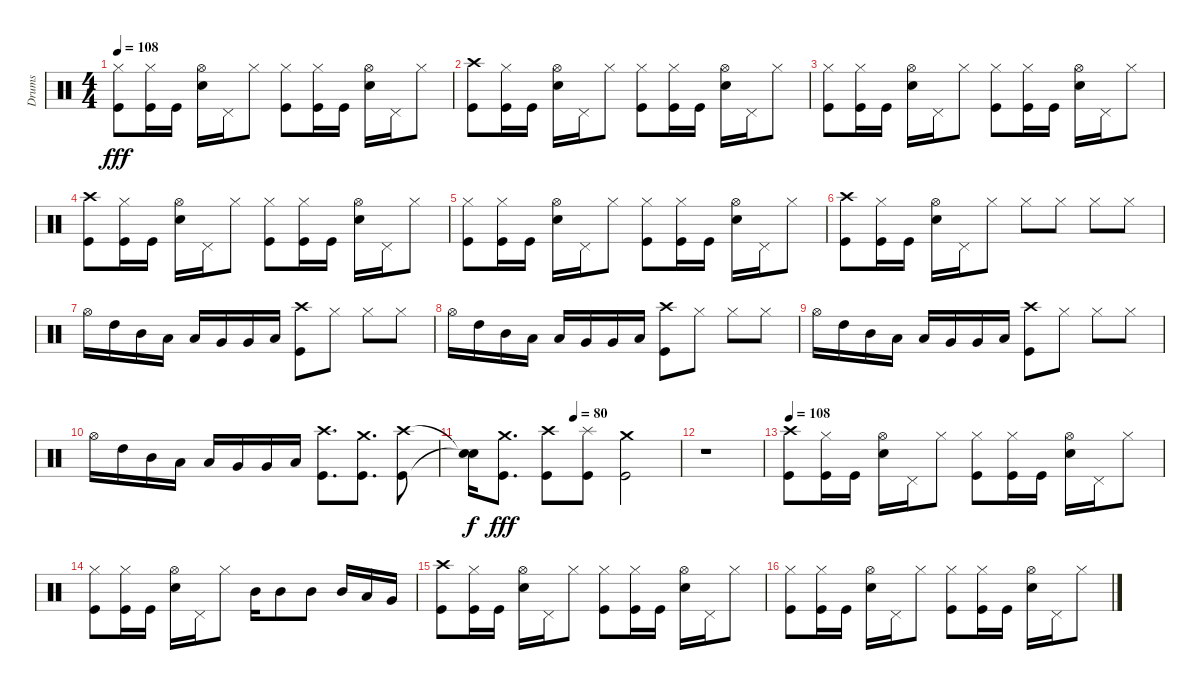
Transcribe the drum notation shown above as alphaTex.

\track ("Drums" "Drums") {instrument percussion}
\staff {score}
\articulation defaults
\ts (4 4)
\tempo 108
\clef neutral
\ks c
("Hi-Hat (closed)" "Kick (hit)").8{dy fff} ("Hi-Hat (closed)" "Kick (hit)").16 "Kick (hit)".16 ("Hi-Hat (open)" "Snare (hit) 2").16 "Pedal Hi-Hat (hit)".16 "Hi-Hat (closed)".8 ("Hi-Hat (closed)" "Kick (hit)").8 ("Hi-Hat (closed)" "Kick (hit)").16 "Kick (hit)".16 ("Hi-Hat (open)" "Snare (hit) 2").16 "Pedal Hi-Hat (hit)".16 "Hi-Hat (closed)".8 |
("Crash high (hit)" "Kick (hit)").8 ("Hi-Hat (closed)" "Kick (hit)").16 "Kick (hit)".16 ("Hi-Hat (open)" "Snare (hit) 2").16 "Pedal Hi-Hat (hit)".16 "Hi-Hat (closed)".8 ("Hi-Hat (closed)" "Kick (hit)").8 ("Hi-Hat (closed)" "Kick (hit)").16 "Kick (hit)".16 ("Hi-Hat (open)" "Snare (hit) 2").16 "Pedal Hi-Hat (hit)".16 "Hi-Hat (closed)".8 |
("Hi-Hat (closed)" "Kick (hit)").8 ("Hi-Hat (closed)" "Kick (hit)").16 "Kick (hit)".16 ("Hi-Hat (open)" "Snare (hit) 2").16 "Pedal Hi-Hat (hit)".16 "Hi-Hat (closed)".8 ("Hi-Hat (closed)" "Kick (hit)").8 ("Hi-Hat (closed)" "Kick (hit)").16 "Kick (hit)".16 ("Hi-Hat (open)" "Snare (hit) 2").16 "Pedal Hi-Hat (hit)".16 "Hi-Hat (closed)".8 |
("Crash high (hit)" "Kick (hit)").8 ("Hi-Hat (closed)" "Kick (hit)").16 "Kick (hit)".16 ("Hi-Hat (open)" "Snare (hit) 2").16 "Pedal Hi-Hat (hit)".16 "Hi-Hat (closed)".8 ("Hi-Hat (closed)" "Kick (hit)").8 ("Hi-Hat (closed)" "Kick (hit)").16 "Kick (hit)".16 ("Hi-Hat (open)" "Snare (hit) 2").16 "Pedal Hi-Hat (hit)".16 "Hi-Hat (closed)".8 |
("Hi-Hat (closed)" "Kick (hit)").8 ("Hi-Hat (closed)" "Kick (hit)").16 "Kick (hit)".16 ("Hi-Hat (open)" "Snare (hit) 2").16 "Pedal Hi-Hat (hit)".16 "Hi-Hat (closed)".8 ("Hi-Hat (closed)" "Kick (hit)").8 ("Hi-Hat (closed)" "Kick (hit)").16 "Kick (hit)".16 ("Hi-Hat (open)" "Snare (hit) 2").16 "Pedal Hi-Hat (hit)".16 "Hi-Hat (closed)".8 |
("Crash high (hit)" "Kick (hit)").8 ("Hi-Hat (closed)" "Kick (hit)").16 "Kick (hit)".16 ("Hi-Hat (open)" "Snare (hit) 2").16 "Pedal Hi-Hat (hit)".16 "Hi-Hat (closed)".8 "Hi-Hat (closed)".8 "Hi-Hat (closed)".8 "Hi-Hat (closed)".8 "Hi-Hat (closed)".8 |
"Hi-Hat (open)".16 "High Tom (hit)".16 "Mid Tom (hit)".16 "Low Tom (hit)".16 "Low Tom (hit)".16 "Very Low Tom (hit)".16 "Very Low Tom (hit)".16 "Low Floor Tom (hit)".16 ("Crash high (hit)" "Kick (hit)").8 "Hi-Hat (closed)".8 "Hi-Hat (closed)".8 "Hi-Hat (closed)".8 |
"Hi-Hat (open)".16 "High Tom (hit)".16 "Mid Tom (hit)".16 "Low Tom (hit)".16 "Low Tom (hit)".16 "Very Low Tom (hit)".16 "Very Low Tom (hit)".16 "Low Floor Tom (hit)".16 ("Crash high (hit)" "Kick (hit)").8 "Hi-Hat (closed)".8 "Hi-Hat (closed)".8 "Hi-Hat (closed)".8 |
"Hi-Hat (open)".16 "High Tom (hit)".16 "Mid Tom (hit)".16 "Low Tom (hit)".16 "Low Tom (hit)".16 "Very Low Tom (hit)".16 "Very Low Tom (hit)".16 "Low Floor Tom (hit)".16 ("Crash high (hit)" "Kick (hit)").8 "Hi-Hat (closed)".8 "Hi-Hat (closed)".8 "Hi-Hat (closed)".8 |
"Hi-Hat (open)".16 "High Tom (hit)".16 "Mid Tom (hit)".16 "Low Tom (hit)".16 "Low Tom (hit)".16 "Very Low Tom (hit)".16 "Very Low Tom (hit)".16 "Low Floor Tom (hit)".16 ("Crash high (hit)" "Kick (hit)").8{d} ("Crash medium (hit)" "Kick (hit)").8{d} ("Crash high (hit)" "Kick (hit)").8 |
\tempo (80 0.5)
("Snare (hit)"{t} "Snare (hit)"{t}).16{dy f} ("Crash medium (hit)" "Kick (hit)").8{d dy fff} ("Crash high (hit)" "Kick (hit)").8 ("Splash (hit)" "Kick (hit)").8 ("Crash medium (hit)" "Kick (hit)").2 |
r.1 |
\tempo 108
("Crash high (hit)" "Kick (hit)").8 ("Hi-Hat (closed)" "Kick (hit)").16 "Kick (hit)".16 ("Hi-Hat (open)" "Snare (hit) 2").16 "Pedal Hi-Hat (hit)".16 "Hi-Hat (closed)".8 ("Hi-Hat (closed)" "Kick (hit)").8 ("Hi-Hat (closed)" "Kick (hit)").16 "Kick (hit)".16 ("Hi-Hat (open)" "Snare (hit) 2").16 "Pedal Hi-Hat (hit)".16 "Hi-Hat (closed)".8 |
("Hi-Hat (closed)" "Kick (hit)").8 ("Hi-Hat (closed)" "Kick (hit)").16 "Kick (hit)".16 ("Hi-Hat (open)" "Snare (hit) 2").16 "Pedal Hi-Hat (hit)".16 "Hi-Hat (closed)".8 "Mid Tom (hit)".16 "Mid Tom (hit)".8 "Mid Tom (hit)".8 "Mid Tom (hit)".16 "Low Tom (hit)".16 "Very Low Tom (hit)".16 |
("Crash high (hit)" "Kick (hit)").8 ("Hi-Hat (closed)" "Kick (hit)").16 "Kick (hit)".16 ("Hi-Hat (open)" "Snare (hit) 2").16 "Pedal Hi-Hat (hit)".16 "Hi-Hat (closed)".8 ("Hi-Hat (closed)" "Kick (hit)").8 ("Hi-Hat (closed)" "Kick (hit)").16 "Kick (hit)".16 ("Hi-Hat (open)" "Snare (hit) 2").16 "Pedal Hi-Hat (hit)".16 "Hi-Hat (closed)".8 |
("Hi-Hat (closed)" "Kick (hit)").8 ("Hi-Hat (closed)" "Kick (hit)").16 "Kick (hit)".16 ("Hi-Hat (open)" "Snare (hit) 2").16 "Pedal Hi-Hat (hit)".16 "Hi-Hat (closed)".8 ("Hi-Hat (closed)" "Kick (hit)").8 ("Hi-Hat (closed)" "Kick (hit)").16 "Kick (hit)".16 ("Hi-Hat (open)" "Snare (hit) 2").16 "Pedal Hi-Hat (hit)".16 "Hi-Hat (closed)".8
